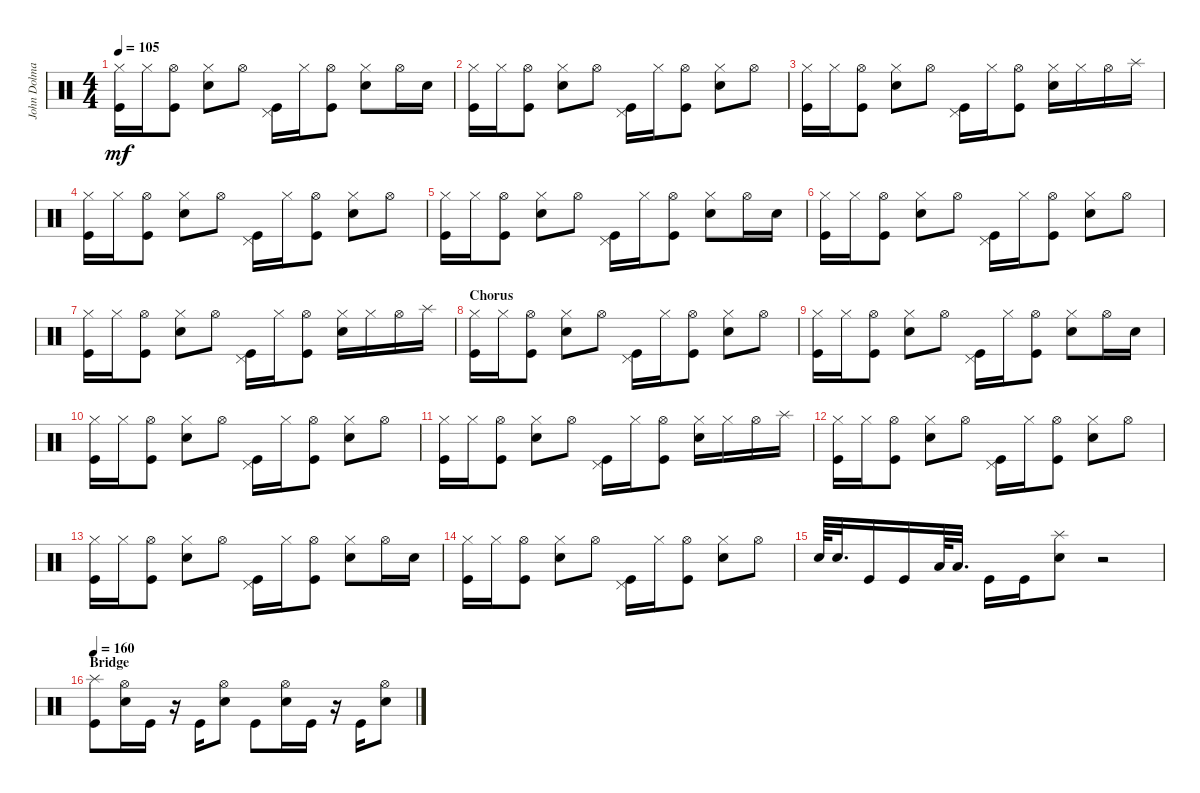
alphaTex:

\track ("John Dolmayan" "John Dolma") {instrument percussion}
\staff {score}
\articulation defaults
\ts (4 4)
\tempo 105
\clef neutral
\ks c
("Hi-Hat (closed)" "Kick (hit)").16{dy mf} "Hi-Hat (closed)".16 ("Hi-Hat (open)" "Kick (hit)").8 ("Hi-Hat (closed)" "Snare (hit) 2").8 "Hi-Hat (open)".8 ("Pedal Hi-Hat (hit)" "Kick (hit)").16 "Hi-Hat (closed)".16 ("Hi-Hat (open)" "Kick (hit)").8 ("Hi-Hat (closed)" "Snare (hit) 2").8 "Hi-Hat (open)".16 "Snare (hit) 2".16 |
("Hi-Hat (closed)" "Kick (hit)").16 "Hi-Hat (closed)".16 ("Hi-Hat (open)" "Kick (hit)").8 ("Hi-Hat (closed)" "Snare (hit) 2").8 "Hi-Hat (open)".8 ("Pedal Hi-Hat (hit)" "Kick (hit)").16 "Hi-Hat (closed)".16 ("Hi-Hat (open)" "Kick (hit)").8 ("Hi-Hat (closed)" "Snare (hit) 2").8 "Hi-Hat (open)".8 |
("Hi-Hat (closed)" "Kick (hit)").16 "Hi-Hat (closed)".16 ("Hi-Hat (open)" "Kick (hit)").8 ("Hi-Hat (closed)" "Snare (hit) 2").8 "Hi-Hat (open)".8 ("Pedal Hi-Hat (hit)" "Kick (hit)").16 "Hi-Hat (closed)".16 ("Hi-Hat (open)" "Kick (hit)").8 ("Snare (hit) 2" "Hi-Hat (closed)").16 "Hi-Hat (closed)".16 "Hi-Hat (open)".16 "Splash (hit)".16 |
("Hi-Hat (closed)" "Kick (hit)").16 "Hi-Hat (closed)".16 ("Hi-Hat (open)" "Kick (hit)").8 ("Hi-Hat (closed)" "Snare (hit) 2").8 "Hi-Hat (open)".8 ("Pedal Hi-Hat (hit)" "Kick (hit)").16 "Hi-Hat (closed)".16 ("Hi-Hat (open)" "Kick (hit)").8 ("Hi-Hat (closed)" "Snare (hit) 2").8 "Hi-Hat (open)".8 |
("Hi-Hat (closed)" "Kick (hit)").16 "Hi-Hat (closed)".16 ("Hi-Hat (open)" "Kick (hit)").8 ("Hi-Hat (closed)" "Snare (hit) 2").8 "Hi-Hat (open)".8 ("Pedal Hi-Hat (hit)" "Kick (hit)").16 "Hi-Hat (closed)".16 ("Hi-Hat (open)" "Kick (hit)").8 ("Hi-Hat (closed)" "Snare (hit) 2").8 "Hi-Hat (open)".16 "Snare (hit) 2".16 |
("Hi-Hat (closed)" "Kick (hit)").16 "Hi-Hat (closed)".16 ("Hi-Hat (open)" "Kick (hit)").8 ("Hi-Hat (closed)" "Snare (hit) 2").8 "Hi-Hat (open)".8 ("Pedal Hi-Hat (hit)" "Kick (hit)").16 "Hi-Hat (closed)".16 ("Hi-Hat (open)" "Kick (hit)").8 ("Hi-Hat (closed)" "Snare (hit) 2").8 "Hi-Hat (open)".8 |
("Hi-Hat (closed)" "Kick (hit)").16 "Hi-Hat (closed)".16 ("Hi-Hat (open)" "Kick (hit)").8 ("Hi-Hat (closed)" "Snare (hit) 2").8 "Hi-Hat (open)".8 ("Pedal Hi-Hat (hit)" "Kick (hit)").16 "Hi-Hat (closed)".16 ("Hi-Hat (open)" "Kick (hit)").8 ("Snare (hit) 2" "Hi-Hat (closed)").16 "Hi-Hat (closed)".16 "Hi-Hat (open)".16 "Splash (hit)".16 |
\section ("" "Chorus")
("Hi-Hat (closed)" "Kick (hit)").16 "Hi-Hat (closed)".16 ("Hi-Hat (open)" "Kick (hit)").8 ("Hi-Hat (closed)" "Snare (hit) 2").8 "Hi-Hat (open)".8 ("Pedal Hi-Hat (hit)" "Kick (hit)").16 "Hi-Hat (closed)".16 ("Hi-Hat (open)" "Kick (hit)").8 ("Hi-Hat (closed)" "Snare (hit) 2").8 "Hi-Hat (open)".8 |
("Hi-Hat (closed)" "Kick (hit)").16 "Hi-Hat (closed)".16 ("Hi-Hat (open)" "Kick (hit)").8 ("Hi-Hat (closed)" "Snare (hit) 2").8 "Hi-Hat (open)".8 ("Pedal Hi-Hat (hit)" "Kick (hit)").16 "Hi-Hat (closed)".16 ("Hi-Hat (open)" "Kick (hit)").8 ("Hi-Hat (closed)" "Snare (hit) 2").8 "Hi-Hat (open)".16 "Snare (hit) 2".16 |
("Hi-Hat (closed)" "Kick (hit)").16 "Hi-Hat (closed)".16 ("Hi-Hat (open)" "Kick (hit)").8 ("Hi-Hat (closed)" "Snare (hit) 2").8 "Hi-Hat (open)".8 ("Pedal Hi-Hat (hit)" "Kick (hit)").16 "Hi-Hat (closed)".16 ("Hi-Hat (open)" "Kick (hit)").8 ("Hi-Hat (closed)" "Snare (hit) 2").8 "Hi-Hat (open)".8 |
("Hi-Hat (closed)" "Kick (hit)").16 "Hi-Hat (closed)".16 ("Hi-Hat (open)" "Kick (hit)").8 ("Hi-Hat (closed)" "Snare (hit) 2").8 "Hi-Hat (open)".8 ("Pedal Hi-Hat (hit)" "Kick (hit)").16 "Hi-Hat (closed)".16 ("Hi-Hat (open)" "Kick (hit)").8 ("Snare (hit) 2" "Hi-Hat (closed)").16 "Hi-Hat (closed)".16 "Hi-Hat (open)".16 "Splash (hit)".16 |
("Hi-Hat (closed)" "Kick (hit)").16 "Hi-Hat (closed)".16 ("Hi-Hat (open)" "Kick (hit)").8 ("Hi-Hat (closed)" "Snare (hit) 2").8 "Hi-Hat (open)".8 ("Pedal Hi-Hat (hit)" "Kick (hit)").16 "Hi-Hat (closed)".16 ("Hi-Hat (open)" "Kick (hit)").8 ("Hi-Hat (closed)" "Snare (hit) 2").8 "Hi-Hat (open)".8 |
("Hi-Hat (closed)" "Kick (hit)").16 "Hi-Hat (closed)".16 ("Hi-Hat (open)" "Kick (hit)").8 ("Hi-Hat (closed)" "Snare (hit) 2").8 "Hi-Hat (open)".8 ("Pedal Hi-Hat (hit)" "Kick (hit)").16 "Hi-Hat (closed)".16 ("Hi-Hat (open)" "Kick (hit)").8 ("Hi-Hat (closed)" "Snare (hit) 2").8 "Hi-Hat (open)".16 "Snare (hit) 2".16 |
("Hi-Hat (closed)" "Kick (hit)").16 "Hi-Hat (closed)".16 ("Hi-Hat (open)" "Kick (hit)").8 ("Hi-Hat (closed)" "Snare (hit) 2").8 "Hi-Hat (open)".8 ("Pedal Hi-Hat (hit)" "Kick (hit)").16 "Hi-Hat (closed)".16 ("Hi-Hat (open)" "Kick (hit)").8 ("Hi-Hat (closed)" "Snare (hit) 2").8 "Hi-Hat (open)".8 |
"Snare (hit) 2".64 "Snare (hit) 2".32{d} "Kick (hit)".16 "Kick (hit)".16 "Low Tom (hit)".64 "Low Tom (hit)".32{d} "Kick (hit)".16 "Kick (hit)".16 ("Snare (hit) 2" "Splash (hit)").8 r.2 |
\section ("" "Bridge")
\tempo 160
("Kick (hit)" "Splash (hit)").8 ("Hi-Hat (open)" "Snare (hit) 2").16 "Kick (hit)".16 r.16 "Kick (hit)".16 ("Hi-Hat (open)" "Snare (hit) 2").8 "Kick (hit)".8 ("Hi-Hat (open)" "Snare (hit) 2").16 "Kick (hit)".16 r.16 "Kick (hit)".16 ("Hi-Hat (open)" "Snare (hit) 2").8
